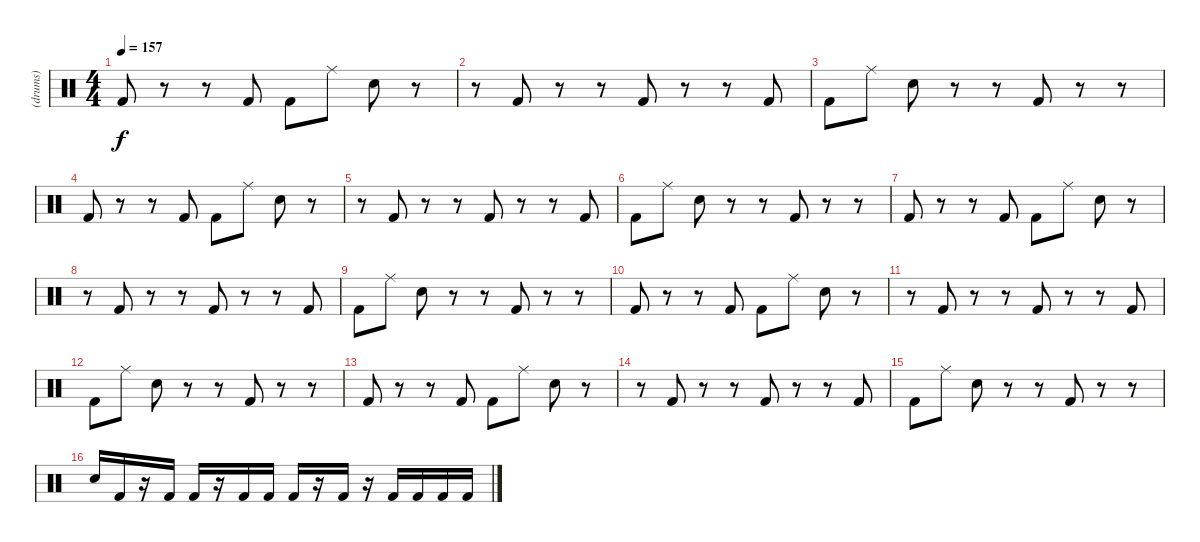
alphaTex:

\track ("(drums)" "(drums)") {instrument percussion}
\staff {score}
\articulation defaults
\ts (4 4)
\tempo 157
\clef neutral
\ks c "Kick (hit) 2".8{dy f}
r.8 r.8 "Kick (hit) 2".8 "Kick (hit) 2".8 "Ride (middle)".8 "Snare (hit) 2".8 r.8 |
r.8 "Kick (hit) 2".8 r.8 r.8 "Kick (hit) 2".8 r.8 r.8 "Kick (hit) 2".8 |
"Kick (hit) 2".8 "Ride (middle)".8 "Snare (hit) 2".8 r.8 r.8 "Kick (hit) 2".8 r.8 r.8 |
"Kick (hit) 2".8 r.8 r.8 "Kick (hit) 2".8 "Kick (hit) 2".8 "Ride (middle)".8 "Snare (hit) 2".8 r.8 |
r.8 "Kick (hit) 2".8 r.8 r.8 "Kick (hit) 2".8 r.8 r.8 "Kick (hit) 2".8 |
"Kick (hit) 2".8 "Ride (middle)".8 "Snare (hit) 2".8 r.8 r.8 "Kick (hit) 2".8 r.8 r.8 |
"Kick (hit) 2".8 r.8 r.8 "Kick (hit) 2".8 "Kick (hit) 2".8 "Ride (middle)".8 "Snare (hit) 2".8 r.8 |
r.8 "Kick (hit) 2".8 r.8 r.8 "Kick (hit) 2".8 r.8 r.8 "Kick (hit) 2".8 |
"Kick (hit) 2".8 "Ride (middle)".8 "Snare (hit) 2".8 r.8 r.8 "Kick (hit) 2".8 r.8 r.8 |
"Kick (hit) 2".8 r.8 r.8 "Kick (hit) 2".8 "Kick (hit) 2".8 "Ride (middle)".8 "Snare (hit) 2".8 r.8 |
r.8 "Kick (hit) 2".8 r.8 r.8 "Kick (hit) 2".8 r.8 r.8 "Kick (hit) 2".8 |
"Kick (hit) 2".8 "Ride (middle)".8 "Snare (hit) 2".8 r.8 r.8 "Kick (hit) 2".8 r.8 r.8 |
"Kick (hit) 2".8 r.8 r.8 "Kick (hit) 2".8 "Kick (hit) 2".8 "Ride (middle)".8 "Snare (hit) 2".8 r.8 |
r.8 "Kick (hit) 2".8 r.8 r.8 "Kick (hit) 2".8 r.8 r.8 "Kick (hit) 2".8 |
"Kick (hit) 2".8 "Ride (middle)".8 "Snare (hit) 2".8 r.8 r.8 "Kick (hit) 2".8 r.8 r.8 |
"Snare (hit)".16 "Kick (hit) 2".16 r.16 "Kick (hit) 2".16 "Kick (hit) 2".16 r.16 "Kick (hit) 2".16 "Kick (hit) 2".16 "Kick (hit) 2".16 r.16 "Kick (hit) 2".16 r.16 "Kick (hit) 2".16 "Kick (hit) 2".16 "Kick (hit) 2".16 "Kick (hit) 2".16
